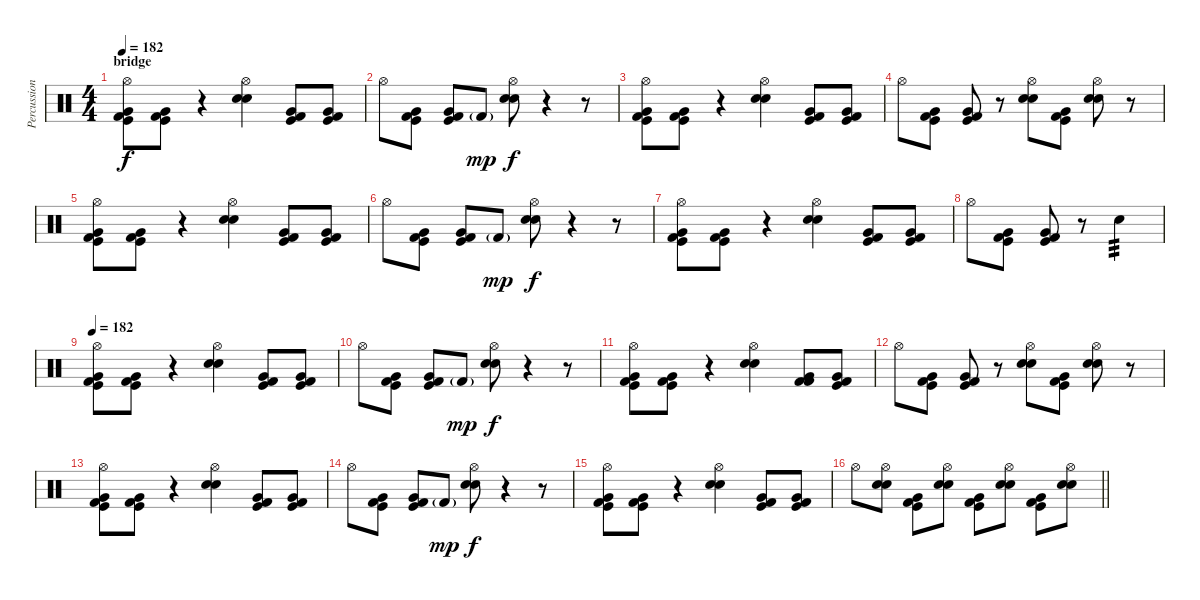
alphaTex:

\track ("Percussions" "Percussion") {instrument percussion}
\staff {score}
\articulation defaults
\ts (4 4)
\section ("" "bridge")
\tempo 182
\clef neutral
\ks c
("Kick (hit)" "Kick (hit) 2" "Very Low Tom (hit)" "Hi-Hat (open)").8{dy f} ("Kick (hit)" "Kick (hit) 2" "Very Low Tom (hit)").8 r.4 ("Snare (hit) 2" "Snare (hit) 2" "Hi-Hat (open)").4 ("Kick (hit)" "Kick (hit) 2" "Very Low Tom (hit)").8 ("Kick (hit)" "Kick (hit) 2" "Very Low Tom (hit)").8 |
"Hi-Hat (open)".8 ("Kick (hit)" "Kick (hit) 2" "Very Low Tom (hit)").8 ("Kick (hit)" "Kick (hit) 2" "Very Low Tom (hit)").8 "Kick (hit) 2"{g}.8{dy mp} ("Snare (hit) 2" "Snare (hit) 2" "Hi-Hat (open)").8{dy f} r.4 r.8 |
("Kick (hit)" "Kick (hit) 2" "Very Low Tom (hit)" "Hi-Hat (open)").8 ("Kick (hit)" "Kick (hit) 2" "Very Low Tom (hit)").8 r.4 ("Snare (hit) 2" "Snare (hit) 2" "Hi-Hat (open)").4 ("Kick (hit)" "Kick (hit) 2" "Very Low Tom (hit)").8 ("Kick (hit)" "Kick (hit) 2" "Very Low Tom (hit)").8 |
"Hi-Hat (open)".8 ("Kick (hit)" "Kick (hit) 2" "Very Low Tom (hit)").8 ("Kick (hit)" "Kick (hit) 2" "Very Low Tom (hit)").8 r.8 ("Snare (hit) 2" "Snare (hit) 2" "Hi-Hat (open)").8 ("Kick (hit)" "Kick (hit) 2" "Very Low Tom (hit)").8 ("Snare (hit) 2" "Snare (hit) 2" "Hi-Hat (open)").8 r.8 |
("Kick (hit)" "Kick (hit) 2" "Very Low Tom (hit)" "Hi-Hat (open)").8 ("Kick (hit)" "Kick (hit) 2" "Very Low Tom (hit)").8 r.4 ("Snare (hit) 2" "Snare (hit) 2" "Hi-Hat (open)").4 ("Kick (hit)" "Kick (hit) 2" "Very Low Tom (hit)").8 ("Kick (hit)" "Kick (hit) 2" "Very Low Tom (hit)").8 |
"Hi-Hat (open)".8 ("Kick (hit)" "Kick (hit) 2" "Very Low Tom (hit)").8 ("Kick (hit)" "Kick (hit) 2" "Very Low Tom (hit)").8 "Kick (hit) 2"{g}.8{dy mp} ("Snare (hit) 2" "Snare (hit) 2" "Hi-Hat (open)").8{dy f} r.4 r.8 |
("Kick (hit)" "Kick (hit) 2" "Very Low Tom (hit)" "Hi-Hat (open)").8 ("Kick (hit)" "Kick (hit) 2" "Very Low Tom (hit)").8 r.4 ("Snare (hit) 2" "Snare (hit) 2" "Hi-Hat (open)").4 ("Kick (hit)" "Kick (hit) 2" "Very Low Tom (hit)").8 ("Kick (hit)" "Kick (hit) 2" "Very Low Tom (hit)").8 |
"Hi-Hat (open)".8 ("Kick (hit)" "Kick (hit) 2" "Very Low Tom (hit)").8 ("Kick (hit)" "Kick (hit) 2" "Very Low Tom (hit)").8 r.8 "Electric Snare (hit)".4{tp 3} |
\tempo 182
("Kick (hit)" "Kick (hit) 2" "Very Low Tom (hit)" "Hi-Hat (open)").8 ("Kick (hit)" "Kick (hit) 2" "Very Low Tom (hit)").8 r.4 ("Snare (hit) 2" "Snare (hit) 2" "Hi-Hat (open)").4 ("Kick (hit)" "Kick (hit) 2" "Very Low Tom (hit)").8 ("Kick (hit)" "Kick (hit) 2" "Very Low Tom (hit)").8 |
"Hi-Hat (open)".8 ("Kick (hit)" "Kick (hit) 2" "Very Low Tom (hit)").8 ("Kick (hit)" "Kick (hit) 2" "Very Low Tom (hit)").8 "Kick (hit) 2"{g}.8{dy mp} ("Snare (hit) 2" "Snare (hit) 2" "Hi-Hat (open)").8{dy f} r.4 r.8 |
("Kick (hit)" "Kick (hit) 2" "Very Low Tom (hit)" "Hi-Hat (open)").8 ("Kick (hit)" "Kick (hit) 2" "Very Low Tom (hit)").8 r.4 ("Snare (hit) 2" "Snare (hit) 2" "Hi-Hat (open)").4 ("Kick (hit) 2" "Kick (hit) 2" "Very Low Tom (hit)").8 ("Kick (hit)" "Kick (hit) 2" "Very Low Tom (hit)").8 |
"Hi-Hat (open)".8 ("Kick (hit)" "Kick (hit) 2" "Very Low Tom (hit)").8 ("Kick (hit)" "Kick (hit) 2" "Very Low Tom (hit)").8 r.8 ("Snare (hit) 2" "Snare (hit) 2" "Hi-Hat (open)").8 ("Kick (hit)" "Kick (hit) 2" "Very Low Tom (hit)").8 ("Snare (hit) 2" "Snare (hit) 2" "Hi-Hat (open)").8 r.8 |
("Kick (hit)" "Kick (hit) 2" "Very Low Tom (hit)" "Hi-Hat (open)").8 ("Kick (hit)" "Kick (hit) 2" "Very Low Tom (hit)").8 r.4 ("Snare (hit) 2" "Snare (hit) 2" "Hi-Hat (open)").4 ("Kick (hit)" "Kick (hit) 2" "Very Low Tom (hit)").8 ("Kick (hit)" "Kick (hit) 2" "Very Low Tom (hit)").8 |
"Hi-Hat (open)".8 ("Kick (hit)" "Kick (hit) 2" "Very Low Tom (hit)").8 ("Kick (hit)" "Kick (hit) 2" "Very Low Tom (hit)").8 "Kick (hit) 2"{g}.8{dy mp} ("Snare (hit) 2" "Snare (hit) 2" "Hi-Hat (open)").8{dy f} r.4 r.8 |
("Kick (hit)" "Kick (hit) 2" "Very Low Tom (hit)" "Hi-Hat (open)").8 ("Kick (hit)" "Kick (hit) 2" "Very Low Tom (hit)").8 r.4 ("Snare (hit) 2" "Snare (hit) 2" "Hi-Hat (open)").4 ("Kick (hit)" "Kick (hit) 2" "Very Low Tom (hit)").8 ("Kick (hit)" "Kick (hit) 2" "Very Low Tom (hit)").8 |
\barLineRight lightlight "Hi-Hat (open)".8
("Snare (hit) 2" "Snare (hit) 2" "Hi-Hat (open)").8 ("Kick (hit)" "Kick (hit) 2" "Very Low Tom (hit)").8 ("Snare (hit) 2" "Snare (hit) 2" "Hi-Hat (open)").8 ("Kick (hit)" "Kick (hit) 2" "Very Low Tom (hit)").8 ("Snare (hit) 2" "Snare (hit) 2" "Hi-Hat (open)").8 ("Kick (hit)" "Kick (hit) 2" "Very Low Tom (hit)").8 ("Snare (hit) 2" "Snare (hit) 2" "Hi-Hat (open)").8
